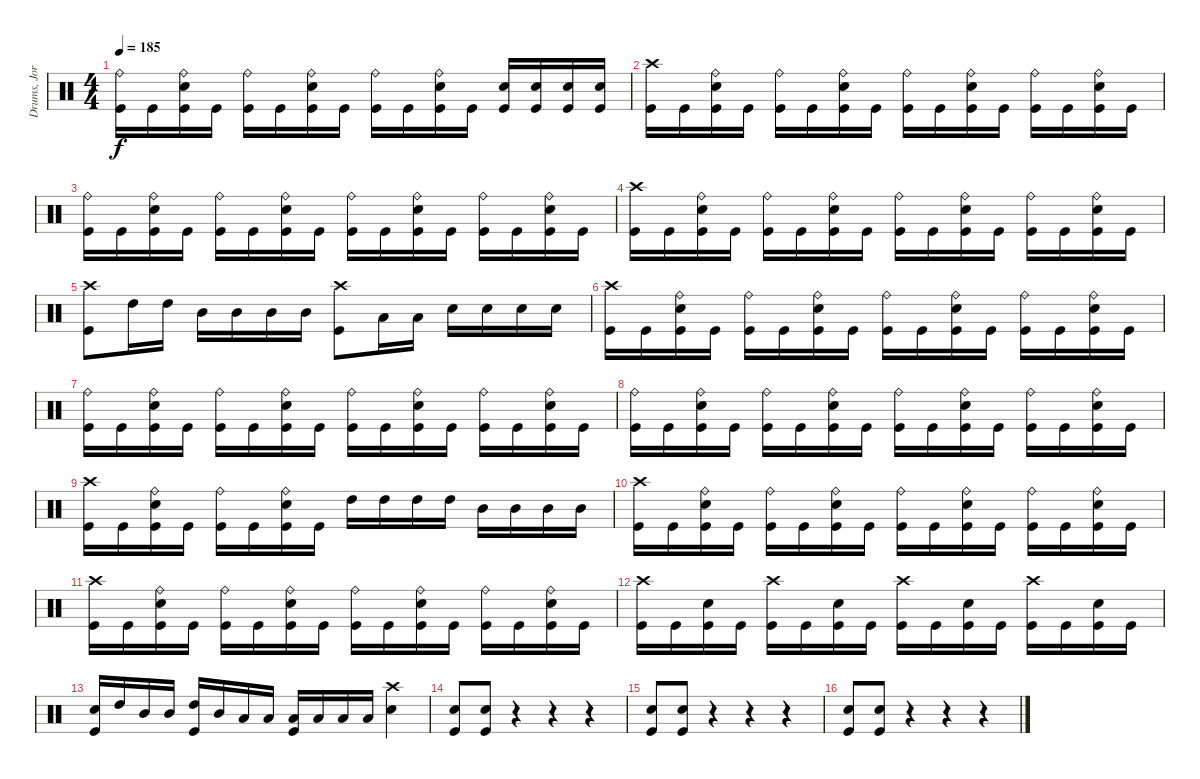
\track ("Drums, Jorye Sáez" "Drums, Jor") {instrument percussion}
\staff {score}
\articulation defaults
\ts (4 4)
\tempo 185
\clef neutral
\ks c
("Ride (bell)" "Kick (hit)").16{dy f} "Kick (hit)".16 ("Ride (bell)" "Electric Snare (hit)" "Kick (hit)").16 "Kick (hit)".16 ("Ride (bell)" "Kick (hit)").16 "Kick (hit)".16 ("Ride (bell)" "Electric Snare (hit)" "Kick (hit)").16 "Kick (hit)".16 ("Ride (bell)" "Kick (hit)").16 "Kick (hit)".16 ("Ride (bell)" "Electric Snare (hit)" "Kick (hit)").16 "Kick (hit)".16 ("Electric Snare (hit)" "Kick (hit)").16 ("Electric Snare (hit)" "Kick (hit)").16 ("Electric Snare (hit)" "Kick (hit)").16 ("Electric Snare (hit)" "Kick (hit)").16 |
("Crash high (hit)" "Kick (hit)").16 "Kick (hit)".16 ("Ride (bell)" "Electric Snare (hit)" "Kick (hit)").16 "Kick (hit)".16 ("Ride (bell)" "Kick (hit)").16 "Kick (hit)".16 ("Ride (bell)" "Electric Snare (hit)" "Kick (hit)").16 "Kick (hit)".16 ("Ride (bell)" "Kick (hit)").16 "Kick (hit)".16 ("Ride (bell)" "Electric Snare (hit)" "Kick (hit)").16 "Kick (hit)".16 ("Ride (bell)" "Kick (hit)").16 "Kick (hit)".16 ("Ride (bell)" "Electric Snare (hit)" "Kick (hit)").16 "Kick (hit)".16 |
("Ride (bell)" "Kick (hit)").16 "Kick (hit)".16 ("Ride (bell)" "Electric Snare (hit)" "Kick (hit)").16 "Kick (hit)".16 ("Ride (bell)" "Kick (hit)").16 "Kick (hit)".16 ("Ride (bell)" "Electric Snare (hit)" "Kick (hit)").16 "Kick (hit)".16 ("Ride (bell)" "Kick (hit)").16 "Kick (hit)".16 ("Ride (bell)" "Electric Snare (hit)" "Kick (hit)").16 "Kick (hit)".16 ("Ride (bell)" "Kick (hit)").16 "Kick (hit)".16 ("Ride (bell)" "Electric Snare (hit)" "Kick (hit)").16 "Kick (hit)".16 |
("Crash high (hit)" "Kick (hit)").16 "Kick (hit)".16 ("Ride (bell)" "Electric Snare (hit)" "Kick (hit)").16 "Kick (hit)".16 ("Ride (bell)" "Kick (hit)").16 "Kick (hit)".16 ("Ride (bell)" "Electric Snare (hit)" "Kick (hit)").16 "Kick (hit)".16 ("Ride (bell)" "Kick (hit)").16 "Kick (hit)".16 ("Ride (bell)" "Electric Snare (hit)" "Kick (hit)").16 "Kick (hit)".16 ("Ride (bell)" "Kick (hit)").16 "Kick (hit)".16 ("Ride (bell)" "Electric Snare (hit)" "Kick (hit)").16 "Kick (hit)".16 |
("Crash high (hit)" "Kick (hit)").8 "High Tom (hit)".16 "High Tom (hit)".16 "Mid Tom (hit)".16 "Mid Tom (hit)".16 "Mid Tom (hit)".16 "Mid Tom (hit)".16 ("Crash high (hit)" "Kick (hit)").8 "Low Tom (hit)".16 "Low Tom (hit)".16 "Electric Snare (hit)".16 "Electric Snare (hit)".16 "Electric Snare (hit)".16 "Electric Snare (hit)".16 |
("Crash high (hit)" "Kick (hit)").16 "Kick (hit)".16 ("Ride (bell)" "Electric Snare (hit)" "Kick (hit)").16 "Kick (hit)".16 ("Ride (bell)" "Kick (hit)").16 "Kick (hit)".16 ("Ride (bell)" "Electric Snare (hit)" "Kick (hit)").16 "Kick (hit)".16 ("Ride (bell)" "Kick (hit)").16 "Kick (hit)".16 ("Ride (bell)" "Electric Snare (hit)" "Kick (hit)").16 "Kick (hit)".16 ("Ride (bell)" "Kick (hit)").16 "Kick (hit)".16 ("Ride (bell)" "Electric Snare (hit)" "Kick (hit)").16 "Kick (hit)".16 |
("Ride (bell)" "Kick (hit)").16 "Kick (hit)".16 ("Ride (bell)" "Electric Snare (hit)" "Kick (hit)").16 "Kick (hit)".16 ("Ride (bell)" "Kick (hit)").16 "Kick (hit)".16 ("Ride (bell)" "Electric Snare (hit)" "Kick (hit)").16 "Kick (hit)".16 ("Ride (bell)" "Kick (hit)").16 "Kick (hit)".16 ("Ride (bell)" "Electric Snare (hit)" "Kick (hit)").16 "Kick (hit)".16 ("Ride (bell)" "Kick (hit)").16 "Kick (hit)".16 ("Ride (bell)" "Electric Snare (hit)" "Kick (hit)").16 "Kick (hit)".16 |
("Ride (bell)" "Kick (hit)").16 "Kick (hit)".16 ("Ride (bell)" "Electric Snare (hit)" "Kick (hit)").16 "Kick (hit)".16 ("Ride (bell)" "Kick (hit)").16 "Kick (hit)".16 ("Ride (bell)" "Electric Snare (hit)" "Kick (hit)").16 "Kick (hit)".16 ("Ride (bell)" "Kick (hit)").16 "Kick (hit)".16 ("Ride (bell)" "Electric Snare (hit)" "Kick (hit)").16 "Kick (hit)".16 ("Ride (bell)" "Kick (hit)").16 "Kick (hit)".16 ("Ride (bell)" "Electric Snare (hit)" "Kick (hit)").16 "Kick (hit)".16 |
("Crash high (hit)" "Kick (hit)").16 "Kick (hit)".16 ("Ride (bell)" "Electric Snare (hit)" "Kick (hit)").16 "Kick (hit)".16 ("Ride (bell)" "Kick (hit)").16 "Kick (hit)".16 ("Ride (bell)" "Electric Snare (hit)" "Kick (hit)").16 "Kick (hit)".16 "High Tom (hit)".16 "High Tom (hit)".16 "High Tom (hit)".16 "High Tom (hit)".16 "Mid Tom (hit)".16 "Mid Tom (hit)".16 "Mid Tom (hit)".16 "Mid Tom (hit)".16 |
("Crash high (hit)" "Kick (hit)").16 "Kick (hit)".16 ("Ride (bell)" "Electric Snare (hit)" "Kick (hit)").16 "Kick (hit)".16 ("Ride (bell)" "Kick (hit)").16 "Kick (hit)".16 ("Ride (bell)" "Electric Snare (hit)" "Kick (hit)").16 "Kick (hit)".16 ("Ride (bell)" "Kick (hit)").16 "Kick (hit)".16 ("Ride (bell)" "Electric Snare (hit)" "Kick (hit)").16 "Kick (hit)".16 ("Ride (bell)" "Kick (hit)").16 "Kick (hit)".16 ("Ride (bell)" "Electric Snare (hit)" "Kick (hit)").16 "Kick (hit)".16 |
("Crash high (hit)" "Kick (hit)").16 "Kick (hit)".16 ("Ride (bell)" "Electric Snare (hit)" "Kick (hit)").16 "Kick (hit)".16 ("Ride (bell)" "Kick (hit)").16 "Kick (hit)".16 ("Ride (bell)" "Electric Snare (hit)" "Kick (hit)").16 "Kick (hit)".16 ("Ride (bell)" "Kick (hit)").16 "Kick (hit)".16 ("Ride (bell)" "Electric Snare (hit)" "Kick (hit)").16 "Kick (hit)".16 ("Ride (bell)" "Kick (hit)").16 "Kick (hit)".16 ("Ride (bell)" "Electric Snare (hit)" "Kick (hit)").16 "Kick (hit)".16 |
("Crash high (hit)" "Kick (hit)").16 "Kick (hit)".16 ("Electric Snare (hit)" "Kick (hit)").16 "Kick (hit)".16 ("Crash high (hit)" "Kick (hit)").16 "Kick (hit)".16 ("Electric Snare (hit)" "Kick (hit)").16 "Kick (hit)".16 ("Crash high (hit)" "Kick (hit)").16 "Kick (hit)".16 ("Electric Snare (hit)" "Kick (hit)").16 "Kick (hit)".16 ("Crash high (hit)" "Kick (hit)").16 "Kick (hit)".16 ("Electric Snare (hit)" "Kick (hit)").16 "Kick (hit)".16 |
("Kick (hit)" "Electric Snare (hit)").16 "High Tom (hit)".16 "Mid Tom (hit)".16 "Mid Tom (hit)".16 ("Kick (hit)" "High Tom (hit)").16 "Mid Tom (hit)".16 "Low Tom (hit)".16 "Low Tom (hit)".16 ("Kick (hit)" "Low Tom (hit)").16 "Low Tom (hit)".16 "Low Tom (hit)".16 "Low Tom (hit)".16 ("Crash high (hit)" "Electric Snare (hit)").4 |
("Kick (hit)" "Electric Snare (hit)").8 ("Kick (hit)" "Electric Snare (hit)").8 r.4 r.4 r.4 |
("Kick (hit)" "Electric Snare (hit)").8 ("Kick (hit)" "Electric Snare (hit)").8 r.4 r.4 r.4 |
("Kick (hit)" "Electric Snare (hit)").8 ("Kick (hit)" "Electric Snare (hit)").8 r.4 r.4 r.4
